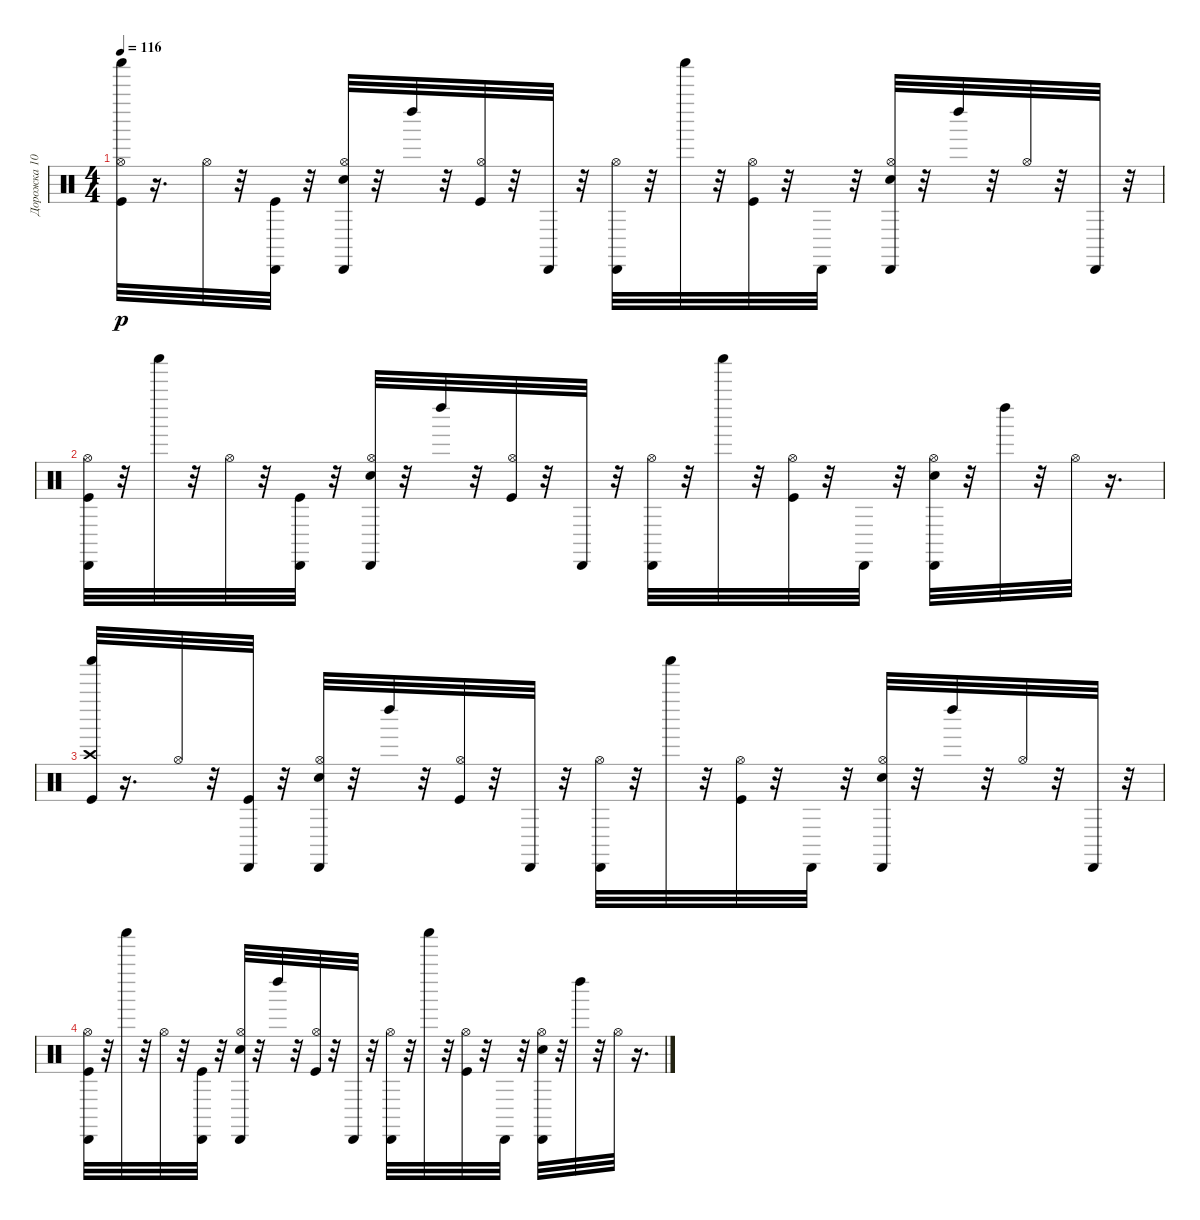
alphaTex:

\track ("Дорожка 10" "Дорожка 10") {instrument percussion}
\staff {score}
\articulation defaults
\ts (4 4)
\tempo 116
\clef neutral
\ks c
("Kick (hit)" "Hi-Hat (open)" "Shaker (hit)").32{dy p} r.16{d} "Hi-Hat (open)".32 r.32 ("Kick (hit)" "Cabasa (hit)").32 r.32 ("Electric Snare (hit)" "Hi-Hat (open)" "Cabasa (hit)").32 r.32 "Left Maraca (hit)".32 r.32 ("Kick (hit)" "Hi-Hat (open)").32 r.32 "Cabasa (hit)".32 r.32 ("Hi-Hat (open)" "Cabasa (hit)").32 r.32 "Shaker (hit)".32 r.32 ("Kick (hit)" "Hi-Hat (open)").32 r.32 "Cabasa (hit)".32 r.32 ("Electric Snare (hit)" "Hi-Hat (open)" "Cabasa (hit)").32 r.32 "Left Maraca (hit)".32 r.32 "Hi-Hat (open)".32 r.32 "Cabasa (hit)".32 r.32 |
("Kick (hit)" "Hi-Hat (open)" "Cabasa (hit)").32 r.32 "Shaker (hit)".32 r.32 "Hi-Hat (open)".32 r.32 ("Kick (hit)" "Cabasa (hit)").32 r.32 ("Electric Snare (hit)" "Hi-Hat (open)" "Cabasa (hit)").32 r.32 "Left Maraca (hit)".32 r.32 ("Kick (hit)" "Hi-Hat (open)").32 r.32 "Cabasa (hit)".32 r.32 ("Hi-Hat (open)" "Cabasa (hit)").32 r.32 "Shaker (hit)".32 r.32 ("Hi-Hat (open)" "Kick (hit)").32 r.32 "Cabasa (hit)".32 r.32 ("Electric Snare (hit)" "Hi-Hat (open)" "Cabasa (hit)").32 r.32 "Left Maraca (hit)".32 r.32 "Hi-Hat (open)".32 r.16{d} |
("Kick (hit)" "Crash high (hit)" "Shaker (hit)").32 r.16{d} "Hi-Hat (open)".32 r.32 ("Kick (hit)" "Cabasa (hit)").32 r.32 ("Electric Snare (hit)" "Hi-Hat (open)" "Cabasa (hit)").32 r.32 "Left Maraca (hit)".32 r.32 ("Kick (hit)" "Hi-Hat (open)").32 r.32 "Cabasa (hit)".32 r.32 ("Hi-Hat (open)" "Cabasa (hit)").32 r.32 "Shaker (hit)".32 r.32 ("Kick (hit)" "Hi-Hat (open)").32 r.32 "Cabasa (hit)".32 r.32 ("Electric Snare (hit)" "Hi-Hat (open)" "Cabasa (hit)").32 r.32 "Left Maraca (hit)".32 r.32 "Hi-Hat (open)".32 r.32 "Cabasa (hit)".32 r.32 |
("Kick (hit)" "Hi-Hat (open)" "Cabasa (hit)").32 r.32 "Shaker (hit)".32 r.32 "Hi-Hat (open)".32 r.32 ("Kick (hit)" "Cabasa (hit)").32 r.32 ("Electric Snare (hit)" "Hi-Hat (open)" "Cabasa (hit)").32 r.32 "Left Maraca (hit)".32 r.32 ("Kick (hit)" "Hi-Hat (open)").32 r.32 "Cabasa (hit)".32 r.32 ("Hi-Hat (open)" "Cabasa (hit)").32 r.32 "Shaker (hit)".32 r.32 ("Hi-Hat (open)" "Kick (hit)").32 r.32 "Cabasa (hit)".32 r.32 ("Electric Snare (hit)" "Hi-Hat (open)" "Cabasa (hit)").32 r.32 "Left Maraca (hit)".32 r.32 "Hi-Hat (open)".32 r.16{d}
